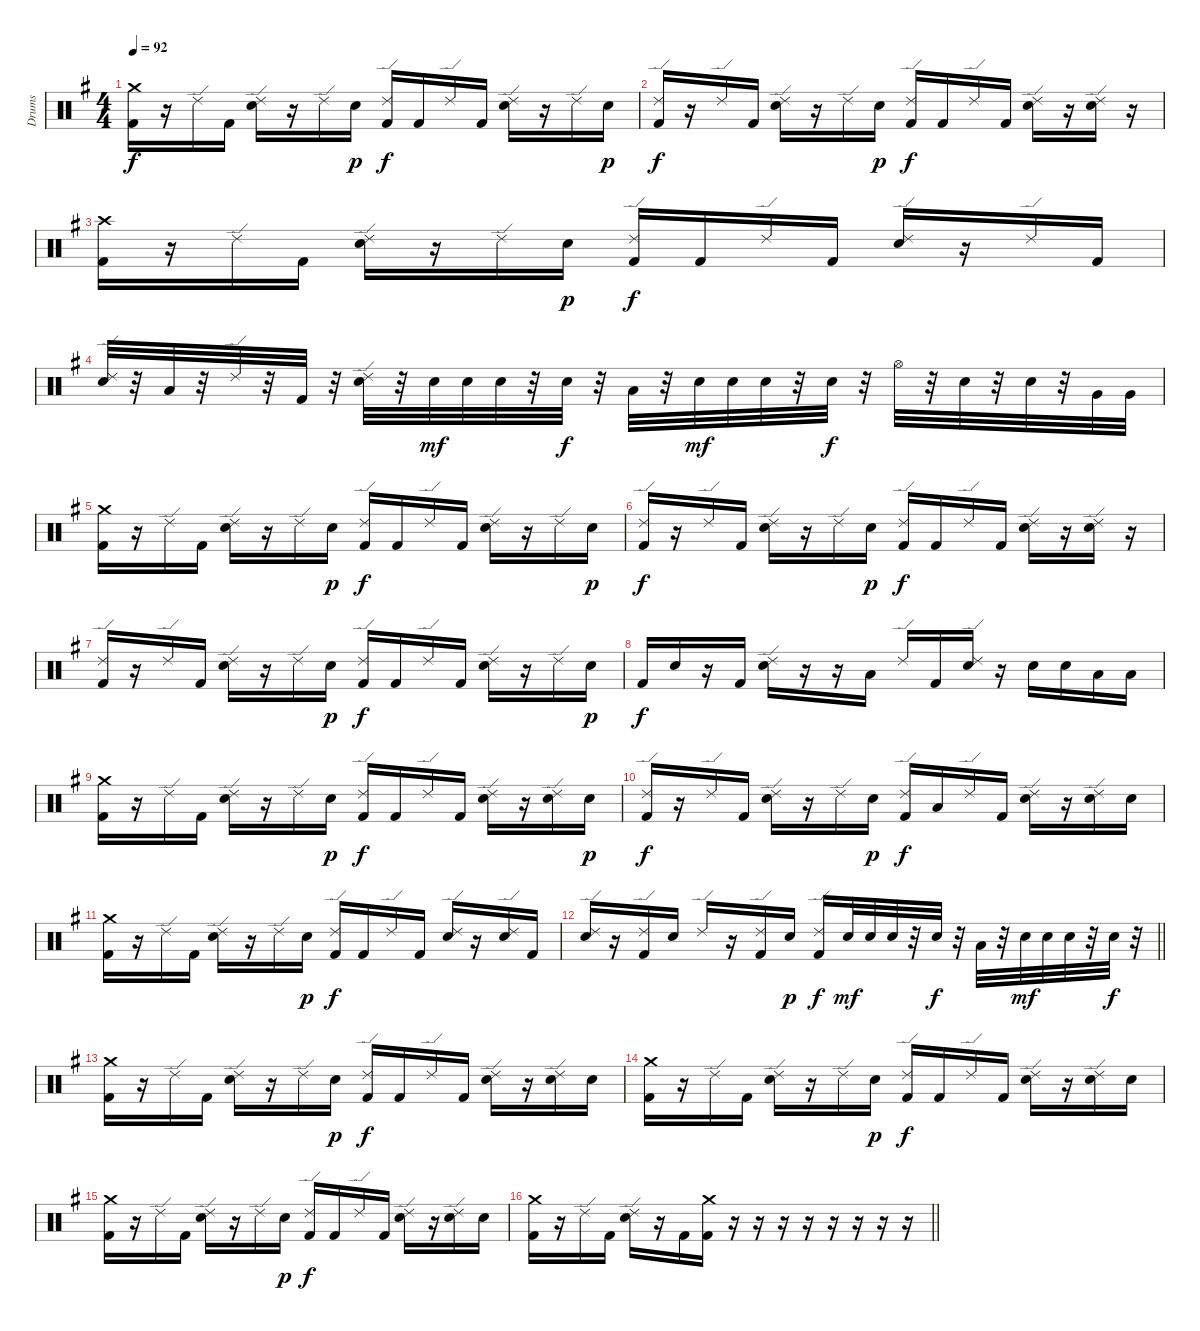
\track ("Drums" "Drums") {instrument percussion}
\staff {score}
\articulation defaults
\ts (4 4)
\tempo 92
\clef neutral
\ks g
("Crash medium (hit)" "Kick (hit) 2").16{dy f} r.16 "Ride (edge) 2".16 "Kick (hit) 2".16 ("Ride (edge) 2" "Snare (hit) 2").16 r.16 "Ride (edge) 2".16 "Snare (hit) 2".16{dy p} ("Ride (edge) 2" "Kick (hit) 2").16{dy f} "Kick (hit) 2".16 "Ride (edge) 2".16 "Kick (hit) 2".16 ("Ride (edge) 2" "Snare (hit) 2").16 r.16 "Ride (edge) 2".16 "Snare (hit) 2".16{dy p} |
("Ride (edge) 2" "Kick (hit) 2").16{dy f} r.16 "Ride (edge) 2".16 "Kick (hit) 2".16 ("Ride (edge) 2" "Snare (hit) 2").16 r.16 "Ride (edge) 2".16 "Snare (hit) 2".16{dy p} ("Ride (edge) 2" "Kick (hit) 2").16{dy f} "Kick (hit) 2".16 "Ride (edge) 2".16 "Kick (hit) 2".16 ("Ride (edge) 2" "Snare (hit) 2").16 r.16 ("Ride (edge) 2" "Snare (hit) 2").16 r.16 |
("Crash high (hit)" "Kick (hit) 2").16 r.16 "Ride (edge) 2".16 "Kick (hit) 2".16 ("Ride (edge) 2" "Snare (hit) 2").16 r.16 "Ride (edge) 2".16 "Snare (hit) 2".16{dy p} ("Ride (edge) 2" "Kick (hit) 2").16{dy f} "Kick (hit) 2".16 "Ride (edge) 2".16 "Kick (hit) 2".16 ("Ride (edge) 2" "Snare (hit) 2").16 r.16 "Ride (edge) 2".16 "Kick (hit) 2".16 |
("Ride (edge) 2" "Snare (hit) 2").32 r.32 "Low Tom (hit)".32 r.32 "Ride (edge) 2".32 r.32 "Kick (hit) 2".32 r.32 ("Ride (edge) 2" "Snare (hit) 2").32 r.32 "Snare (hit) 2".32{dy mf} "Snare (hit) 2".32 "Snare (hit) 2".32 r.32 "Snare (hit) 2".32{dy f} r.32 "Low Tom (hit)".32 r.32 "Snare (hit) 2".32{dy mf} "Snare (hit) 2".32 "Snare (hit) 2".32 r.32 "Snare (hit) 2".32{dy f} r.32 "Hi-Hat (open)".32 r.32 "Snare (hit) 2".32 r.32 "Snare (hit) 2".32 r.32 "Very Low Tom (hit)".32 "Very Low Tom (hit)".32 |
("Crash medium (hit)" "Kick (hit) 2").16 r.16 "Ride (edge) 2".16 "Kick (hit) 2".16 ("Ride (edge) 2" "Snare (hit) 2").16 r.16 "Ride (edge) 2".16 "Snare (hit) 2".16{dy p} ("Ride (edge) 2" "Kick (hit) 2").16{dy f} "Kick (hit) 2".16 "Ride (edge) 2".16 "Kick (hit) 2".16 ("Ride (edge) 2" "Snare (hit) 2").16 r.16 "Ride (edge) 2".16 "Snare (hit) 2".16{dy p} |
("Ride (edge) 2" "Kick (hit) 2").16{dy f} r.16 "Ride (edge) 2".16 "Kick (hit) 2".16 ("Ride (edge) 2" "Snare (hit) 2").16 r.16 "Ride (edge) 2".16 "Snare (hit) 2".16{dy p} ("Ride (edge) 2" "Kick (hit) 2").16{dy f} "Kick (hit) 2".16 "Ride (edge) 2".16 "Kick (hit) 2".16 ("Ride (edge) 2" "Snare (hit) 2").16 r.16 ("Ride (edge) 2" "Snare (hit) 2").16 r.16 |
("Ride (edge) 2" "Kick (hit) 2").16 r.16 "Ride (edge) 2".16 "Kick (hit) 2".16 ("Ride (edge) 2" "Snare (hit) 2").16 r.16 "Ride (edge) 2".16 "Snare (hit) 2".16{dy p} ("Ride (edge) 2" "Kick (hit) 2").16{dy f} "Kick (hit) 2".16 "Ride (edge) 2".16 "Kick (hit) 2".16 ("Ride (edge) 2" "Snare (hit) 2").16 r.16 "Ride (edge) 2".16 "Snare (hit) 2".16{dy p} |
"Kick (hit) 2".16{dy f} "Snare (hit) 2".16 r.16 "Kick (hit) 2".16 ("Ride (edge) 2" "Snare (hit) 2").16 r.16 r.16 "Low Tom (hit)".16 "Ride (edge) 2".16 "Kick (hit) 2".16 ("Ride (edge) 2" "Snare (hit) 2").16 r.16 "Snare (hit) 2".16 "Snare (hit) 2".16 "Low Floor Tom (hit)".16 "Low Floor Tom (hit)".16 |
("Crash medium (hit)" "Kick (hit) 2").16 r.16 "Ride (edge) 2".16 "Kick (hit) 2".16 ("Ride (edge) 2" "Snare (hit) 2").16 r.16 "Ride (edge) 2".16 "Snare (hit) 2".16{dy p} ("Ride (edge) 2" "Kick (hit) 2").16{dy f} "Kick (hit) 2".16 "Ride (edge) 2".16 "Kick (hit) 2".16 ("Ride (edge) 2" "Snare (hit) 2").16 r.16 ("Ride (edge) 2" "Snare (hit) 2").16 "Snare (hit) 2".16{dy p} |
("Ride (edge) 2" "Kick (hit) 2").16{dy f} r.16 "Ride (edge) 2".16 "Kick (hit) 2".16 ("Ride (edge) 2" "Snare (hit) 2").16 r.16 "Ride (edge) 2".16 "Snare (hit) 2".16{dy p} ("Ride (edge) 2" "Kick (hit) 2").16{dy f} "Low Tom (hit)".16 "Ride (edge) 2".16 "Kick (hit) 2".16 ("Ride (edge) 2" "Snare (hit) 2").16 r.16 ("Ride (edge) 2" "Snare (hit) 2").16 "Snare (hit) 2".16 |
("Crash medium (hit)" "Kick (hit) 2").16 r.16 "Ride (edge) 2".16 "Kick (hit) 2".16 ("Ride (edge) 2" "Snare (hit) 2").16 r.16 "Ride (edge) 2".16 "Snare (hit) 2".16{dy p} ("Ride (edge) 2" "Kick (hit) 2").16{dy f} "Kick (hit) 2".16 "Ride (edge) 2".16 "Kick (hit) 2".16 ("Ride (edge) 2" "Snare (hit) 2").16 r.16 ("Ride (edge) 2" "Snare (hit) 2").16 "Kick (hit) 2".16 |
\barLineRight lightlight
("Ride (edge) 2" "Snare (hit) 2").16 r.16 ("Ride (edge) 2" "Kick (hit) 2").16 "Snare (hit) 2".16 "Ride (edge) 2".16 r.16 ("Ride (edge) 2" "Kick (hit) 2").16 "Snare (hit) 2".16{dy p} ("Ride (edge) 2" "Kick (hit) 2").16{dy f} "Snare (hit) 2".32{dy mf} "Snare (hit) 2".32 "Snare (hit) 2".32 r.32 "Snare (hit) 2".32{dy f} r.32 "Low Tom (hit)".32 r.32 "Snare (hit) 2".32{dy mf} "Snare (hit) 2".32 "Snare (hit) 2".32 r.32 "Snare (hit) 2".32{dy f} r.32 |
("Crash medium (hit)" "Kick (hit) 2").16 r.16 "Ride (edge) 2".16 "Kick (hit) 2".16 ("Ride (edge) 2" "Snare (hit) 2").16 r.16 "Ride (edge) 2".16 "Snare (hit) 2".16{dy p} ("Ride (edge) 2" "Kick (hit) 2").16{dy f} "Kick (hit) 2".16 "Ride (edge) 2".16 "Kick (hit) 2".16 ("Ride (edge) 2" "Snare (hit) 2").16 r.16 ("Ride (edge) 2" "Snare (hit) 2").16 "Snare (hit) 2".16 |
("Crash medium (hit)" "Kick (hit) 2").16 r.16 "Ride (edge) 2".16 "Kick (hit) 2".16 ("Ride (edge) 2" "Snare (hit) 2").16 r.16 "Ride (edge) 2".16 "Snare (hit) 2".16{dy p} ("Ride (edge) 2" "Kick (hit) 2").16{dy f} "Kick (hit) 2".16 "Ride (edge) 2".16 "Kick (hit) 2".16 ("Ride (edge) 2" "Snare (hit) 2").16 r.16 ("Ride (edge) 2" "Snare (hit) 2").16 "Snare (hit) 2".16 |
("Crash medium (hit)" "Kick (hit) 2").16 r.16 "Ride (edge) 2".16 "Kick (hit) 2".16 ("Ride (edge) 2" "Snare (hit) 2").16 r.16 "Ride (edge) 2".16 "Snare (hit) 2".16{dy p} ("Ride (edge) 2" "Kick (hit) 2").16{dy f} "Kick (hit) 2".16 "Ride (edge) 2".16 "Kick (hit) 2".16 ("Ride (edge) 2" "Snare (hit) 2").16 r.16 ("Ride (edge) 2" "Snare (hit) 2").16 "Snare (hit) 2".16 |
\barLineRight lightlight
("Crash medium (hit)" "Kick (hit) 2").16 r.16 "Ride (edge) 2".16 "Kick (hit) 2".16 ("Ride (edge) 2" "Snare (hit) 2").16 r.16 "Kick (hit) 2".16 ("Crash medium (hit)" "Kick (hit) 2").16 r.16 r.16 r.16 r.16 r.16 r.16 r.16 r.16
